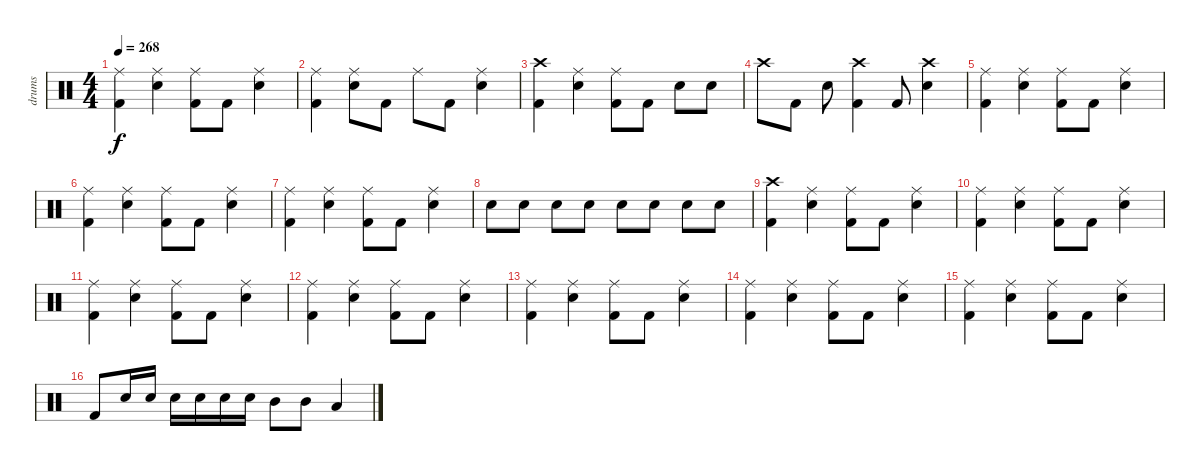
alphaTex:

\track ("drums" "drums") {instrument percussion}
\staff {score}
\articulation defaults
\ts (4 4)
\tempo 268
\clef neutral
\ks c
("Ride (middle)" "Kick (hit) 2").4{dy f} ("Ride (middle)" "Electric Snare (hit)").4 ("Ride (middle)" "Kick (hit) 2").8 "Kick (hit) 2".8 ("Ride (middle)" "Electric Snare (hit)").4 |
("Ride (middle)" "Kick (hit) 2").4 ("Ride (middle)" "Electric Snare (hit)").8 "Kick (hit) 2".8 "Ride (middle)".8 "Kick (hit) 2".8 ("Ride (middle)" "Electric Snare (hit)").4 |
("Crash high (hit)" "Kick (hit) 2").4 ("Ride (middle)" "Electric Snare (hit)").4 ("Ride (middle)" "Kick (hit) 2").8 "Kick (hit) 2".8 "Electric Snare (hit)".8 "Electric Snare (hit)".8 |
"Crash high (hit)".8 "Kick (hit) 2".8 "Electric Snare (hit)".8 ("Crash high (hit)" "Kick (hit) 2").4 "Kick (hit) 2".8 ("Crash high (hit)" "Electric Snare (hit)").4 |
("Ride (middle)" "Kick (hit) 2").4 ("Ride (middle)" "Electric Snare (hit)").4 ("Ride (middle)" "Kick (hit) 2").8 "Kick (hit) 2".8 ("Ride (middle)" "Electric Snare (hit)").4 |
("Ride (middle)" "Kick (hit) 2").4 ("Ride (middle)" "Electric Snare (hit)").4 ("Ride (middle)" "Kick (hit) 2").8 "Kick (hit) 2".8 ("Ride (middle)" "Electric Snare (hit)").4 |
("Ride (middle)" "Kick (hit) 2").4 ("Ride (middle)" "Electric Snare (hit)").4 ("Ride (middle)" "Kick (hit) 2").8 "Kick (hit) 2".8 ("Ride (middle)" "Electric Snare (hit)").4 |
"Electric Snare (hit)".8 "Electric Snare (hit)".8 "Electric Snare (hit)".8 "Electric Snare (hit)".8 "Electric Snare (hit)".8 "Electric Snare (hit)".8 "Electric Snare (hit)".8 "Electric Snare (hit)".8 |
("Crash high (hit)" "Kick (hit) 2").4 ("Ride (middle)" "Electric Snare (hit)").4 ("Ride (middle)" "Kick (hit) 2").8 "Kick (hit) 2".8 ("Ride (middle)" "Electric Snare (hit)").4 |
("Ride (middle)" "Kick (hit) 2").4 ("Ride (middle)" "Electric Snare (hit)").4 ("Ride (middle)" "Kick (hit) 2").8 "Kick (hit) 2".8 ("Ride (middle)" "Electric Snare (hit)").4 |
("Ride (middle)" "Kick (hit) 2").4 ("Ride (middle)" "Electric Snare (hit)").4 ("Ride (middle)" "Kick (hit) 2").8 "Kick (hit) 2".8 ("Ride (middle)" "Electric Snare (hit)").4 |
("Ride (middle)" "Kick (hit) 2").4 ("Ride (middle)" "Electric Snare (hit)").4 ("Ride (middle)" "Kick (hit) 2").8 "Kick (hit) 2".8 ("Ride (middle)" "Electric Snare (hit)").4 |
("Ride (middle)" "Kick (hit) 2").4 ("Ride (middle)" "Electric Snare (hit)").4 ("Ride (middle)" "Kick (hit) 2").8 "Kick (hit) 2".8 ("Ride (middle)" "Electric Snare (hit)").4 |
("Ride (middle)" "Kick (hit) 2").4 ("Ride (middle)" "Electric Snare (hit)").4 ("Ride (middle)" "Kick (hit) 2").8 "Kick (hit) 2".8 ("Ride (middle)" "Electric Snare (hit)").4 |
("Ride (middle)" "Kick (hit) 2").4 ("Ride (middle)" "Electric Snare (hit)").4 ("Ride (middle)" "Kick (hit) 2").8 "Kick (hit) 2".8 ("Ride (middle)" "Electric Snare (hit)").4 |
"Kick (hit) 2".8 "Electric Snare (hit)".16 "Electric Snare (hit)".16 "Electric Snare (hit)".16 "Electric Snare (hit)".16 "Electric Snare (hit)".16 "Electric Snare (hit)".16 "Mid Tom (hit)".8 "Mid Tom (hit)".8 "Low Tom (hit)".4
